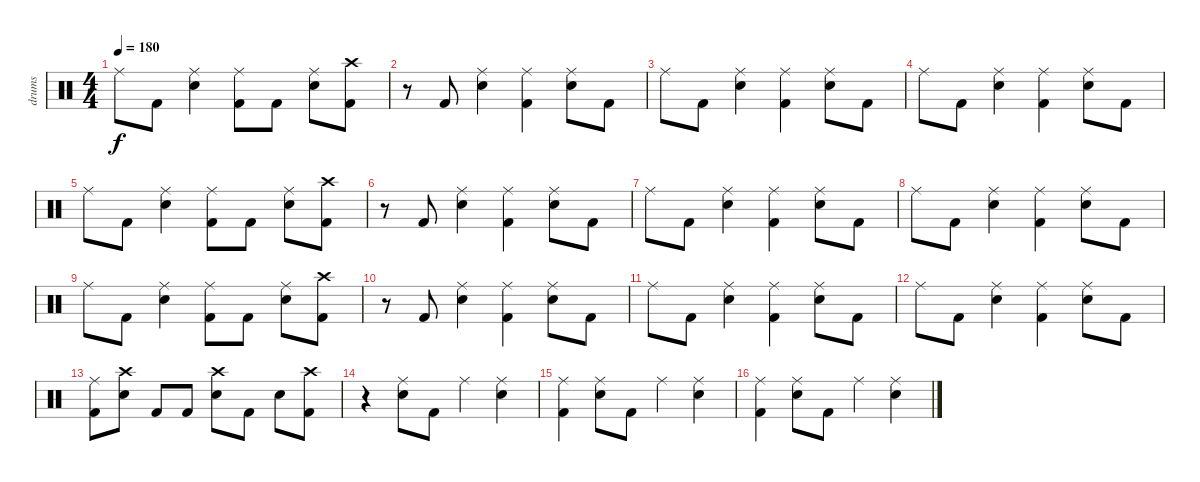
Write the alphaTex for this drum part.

\track ("drums" "drums") {instrument percussion}
\staff {score}
\articulation defaults
\ts (4 4)
\tempo 180
\clef neutral
\ks c "Ride (middle)".8{dy f} "Kick (hit) 2".8
("Ride (middle)" "Electric Snare (hit)").4 ("Ride (middle)" "Kick (hit) 2").8 "Kick (hit) 2".8 ("Ride (middle)" "Electric Snare (hit)").8 ("Crash high (hit)" "Kick (hit) 2").8 |
r.8 "Kick (hit) 2".8 ("Ride (middle)" "Electric Snare (hit)").4 ("Ride (middle)" "Kick (hit) 2").4 ("Ride (middle)" "Electric Snare (hit)").8 "Kick (hit) 2".8 |
"Ride (middle)".8 "Kick (hit) 2".8 ("Ride (middle)" "Electric Snare (hit)").4 ("Ride (middle)" "Kick (hit) 2").4 ("Ride (middle)" "Electric Snare (hit)").8 "Kick (hit) 2".8 |
"Ride (middle)".8 "Kick (hit) 2".8 ("Ride (middle)" "Electric Snare (hit)").4 ("Ride (middle)" "Kick (hit) 2").4 ("Ride (middle)" "Electric Snare (hit)").8 "Kick (hit) 2".8 |
"Ride (middle)".8 "Kick (hit) 2".8 ("Ride (middle)" "Electric Snare (hit)").4 ("Ride (middle)" "Kick (hit) 2").8 "Kick (hit) 2".8 ("Ride (middle)" "Electric Snare (hit)").8 ("Crash high (hit)" "Kick (hit) 2").8 |
r.8 "Kick (hit) 2".8 ("Ride (middle)" "Electric Snare (hit)").4 ("Ride (middle)" "Kick (hit) 2").4 ("Ride (middle)" "Electric Snare (hit)").8 "Kick (hit) 2".8 |
"Ride (middle)".8 "Kick (hit) 2".8 ("Ride (middle)" "Electric Snare (hit)").4 ("Ride (middle)" "Kick (hit) 2").4 ("Ride (middle)" "Electric Snare (hit)").8 "Kick (hit) 2".8 |
"Ride (middle)".8 "Kick (hit) 2".8 ("Ride (middle)" "Electric Snare (hit)").4 ("Ride (middle)" "Kick (hit) 2").4 ("Ride (middle)" "Electric Snare (hit)").8 "Kick (hit) 2".8 |
"Ride (middle)".8 "Kick (hit) 2".8 ("Ride (middle)" "Electric Snare (hit)").4 ("Ride (middle)" "Kick (hit) 2").8 "Kick (hit) 2".8 ("Ride (middle)" "Electric Snare (hit)").8 ("Crash high (hit)" "Kick (hit) 2").8 |
r.8 "Kick (hit) 2".8 ("Ride (middle)" "Electric Snare (hit)").4 ("Ride (middle)" "Kick (hit) 2").4 ("Ride (middle)" "Electric Snare (hit)").8 "Kick (hit) 2".8 |
"Ride (middle)".8 "Kick (hit) 2".8 ("Ride (middle)" "Electric Snare (hit)").4 ("Ride (middle)" "Kick (hit) 2").4 ("Ride (middle)" "Electric Snare (hit)").8 "Kick (hit) 2".8 |
"Ride (middle)".8 "Kick (hit) 2".8 ("Ride (middle)" "Electric Snare (hit)").4 ("Ride (middle)" "Kick (hit) 2").4 ("Ride (middle)" "Electric Snare (hit)").8 "Kick (hit) 2".8 |
("Ride (middle)" "Kick (hit) 2").8 ("Crash high (hit)" "Electric Snare (hit)").8 "Kick (hit) 2".8 "Kick (hit) 2".8 ("Crash high (hit)" "Electric Snare (hit)").8 "Kick (hit) 2".8 "Electric Snare (hit)".8 ("Crash high (hit)" "Kick (hit) 2").8 |
r.4 ("Ride (middle)" "Electric Snare (hit)").8 "Kick (hit) 2".8 "Ride (middle)".4 ("Ride (middle)" "Electric Snare (hit)").4 |
("Ride (middle)" "Kick (hit) 2").4 ("Ride (middle)" "Electric Snare (hit)").8 "Kick (hit) 2".8 "Ride (middle)".4 ("Ride (middle)" "Electric Snare (hit)").4 |
("Ride (middle)" "Kick (hit) 2").4 ("Ride (middle)" "Electric Snare (hit)").8 "Kick (hit) 2".8 "Ride (middle)".4 ("Ride (middle)" "Electric Snare (hit)").4
